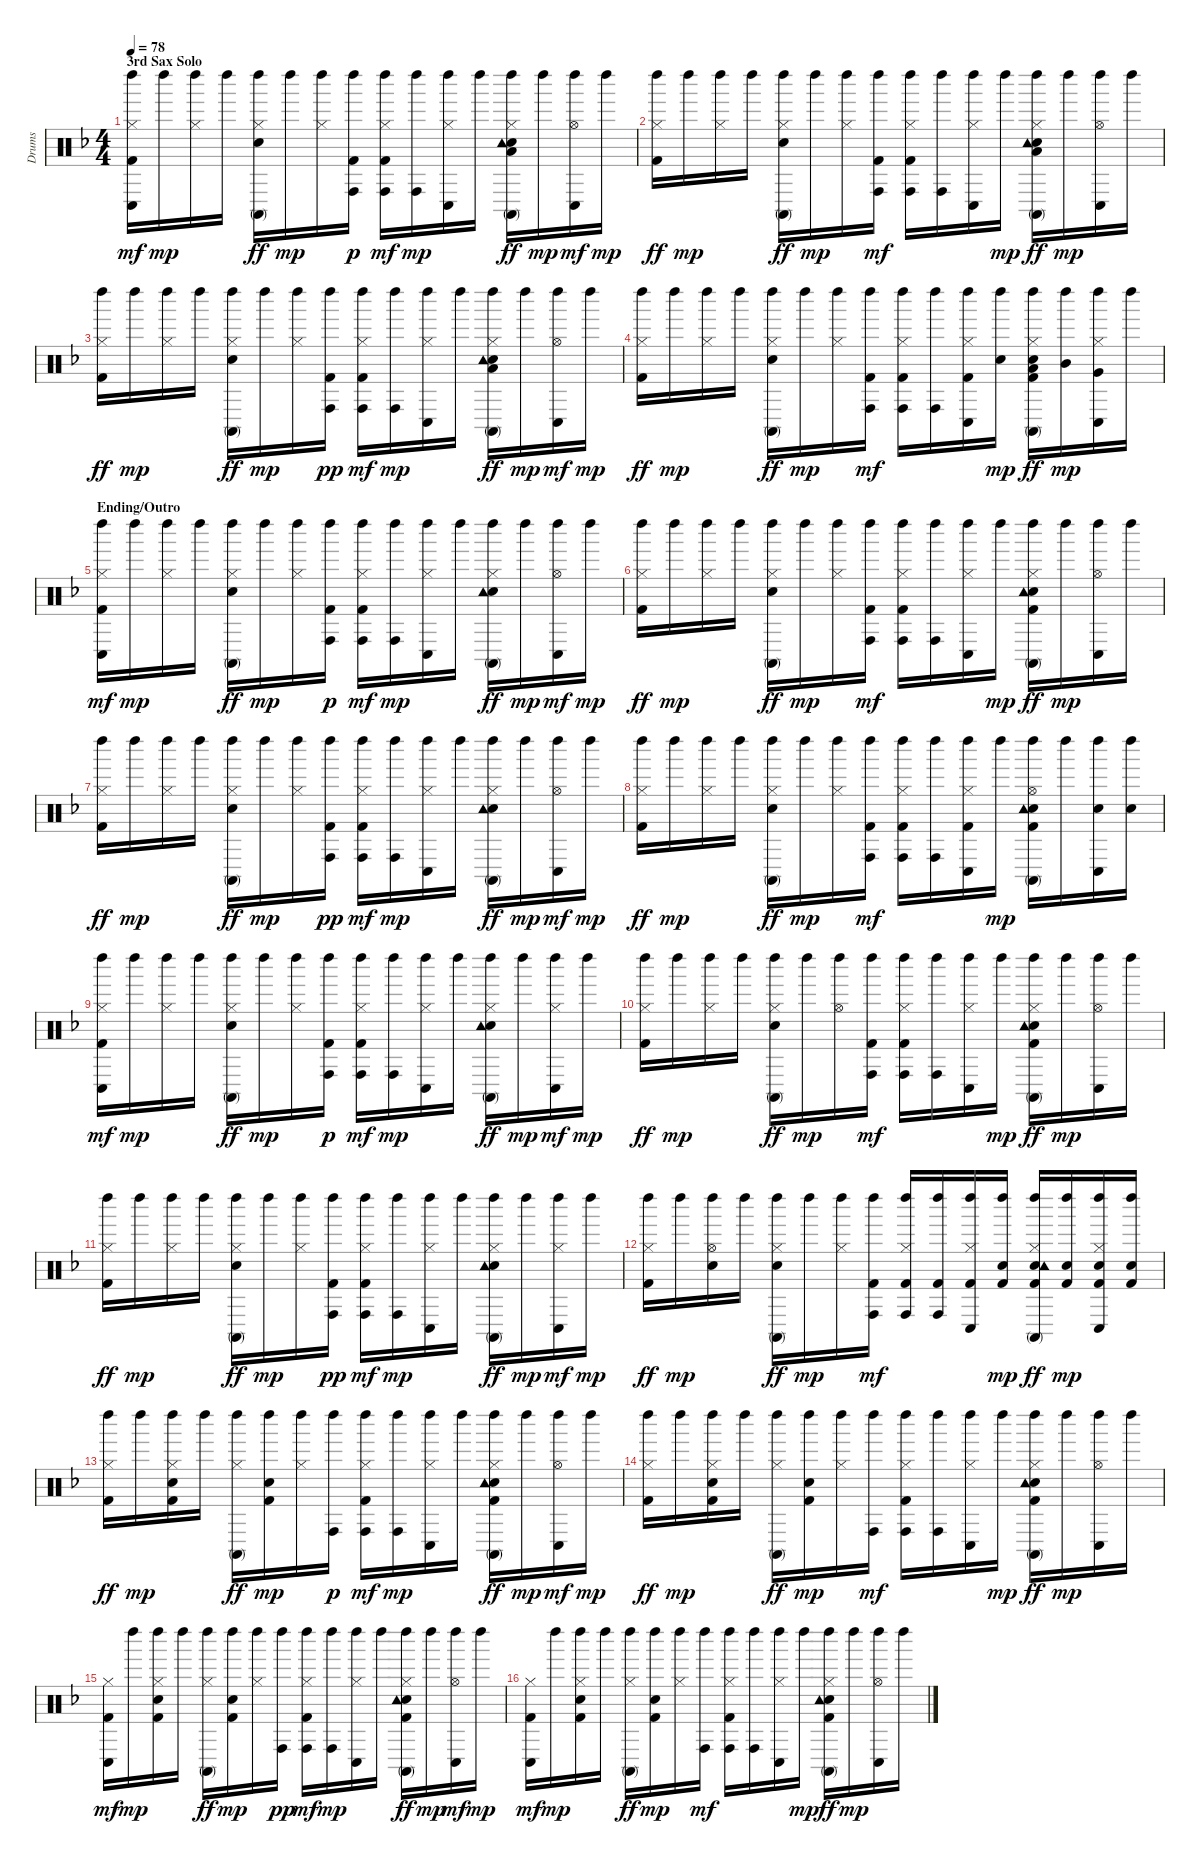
\track ("Drums" "Drums") {instrument percussion}
\staff {score}
\articulation defaults
\ts (4 4)
\section ("" "3rd Sax Solo")
\tempo 78
\clef neutral
\ks f
("Kick (hit) 2" "Hi-Hat (closed)" "Left Maraca (hit)" "Conga low (hit)").16{dy mf} "Left Maraca (hit)".16{dy mp} ("Hi-Hat (closed)" "Left Maraca (hit)").16 "Left Maraca (hit)".16 ("Snare (hit) 2" "Hi-Hat (closed)" "Left Maraca (hit)" "Conga high (mute)").16{dy ff} "Left Maraca (hit)".16{dy mp} ("Hi-Hat (closed)" "Left Maraca (hit)").16 ("Kick (hit) 2" "Left Maraca (hit)" "Conga high (hit)").16{dy p} ("Kick (hit) 2" "Hi-Hat (closed)" "Left Maraca (hit)" "Conga high (hit)").16{dy mf} ("Left Maraca (hit)" "Conga high (hit)").16{dy mp} ("Hi-Hat (closed)" "Left Maraca (hit)" "Conga low (hit)").16 "Left Maraca (hit)".16 ("Snare (hit) 2" "Hi-Hat (closed)" "Left Maraca (hit)" "Low Floor Tom (hit)" "Conga high (mute)" "Tambourine (hit)").16{dy ff} "Left Maraca (hit)".16{dy mp} ("Hi-Hat (open)" "Left Maraca (hit)" "Conga low (hit)").16{dy mf} "Left Maraca (hit)".16{dy mp} |
("Kick (hit) 2" "Hi-Hat (closed)" "Left Maraca (hit)").16{dy ff} "Left Maraca (hit)".16{dy mp} ("Hi-Hat (closed)" "Left Maraca (hit)").16 "Left Maraca (hit)".16 ("Snare (hit) 2" "Hi-Hat (closed)" "Left Maraca (hit)" "Conga high (mute)").16{dy ff} "Left Maraca (hit)".16{dy mp} ("Hi-Hat (closed)" "Left Maraca (hit)").16 ("Kick (hit) 2" "Left Maraca (hit)" "Conga high (hit)").16{dy mf} ("Kick (hit) 2" "Hi-Hat (closed)" "Left Maraca (hit)" "Conga high (hit)").16 ("Left Maraca (hit)" "Conga high (hit)").16 ("Hi-Hat (closed)" "Left Maraca (hit)" "Conga low (hit)").16 "Left Maraca (hit)".16{dy mp} ("Snare (hit) 2" "Hi-Hat (closed)" "Left Maraca (hit)" "Low Floor Tom (hit)" "Conga high (mute)" "Tambourine (hit)").16{dy ff} "Left Maraca (hit)".16{dy mp} ("Hi-Hat (open)" "Left Maraca (hit)" "Conga low (hit)").16 "Left Maraca (hit)".16 |
("Kick (hit) 2" "Hi-Hat (closed)" "Left Maraca (hit)").16{dy ff} "Left Maraca (hit)".16{dy mp} ("Hi-Hat (closed)" "Left Maraca (hit)").16 "Left Maraca (hit)".16 ("Snare (hit) 2" "Hi-Hat (closed)" "Left Maraca (hit)" "Conga high (mute)").16{dy ff} "Left Maraca (hit)".16{dy mp} ("Hi-Hat (closed)" "Left Maraca (hit)").16 ("Kick (hit) 2" "Left Maraca (hit)" "Conga high (hit)").16{dy pp} ("Kick (hit) 2" "Hi-Hat (closed)" "Left Maraca (hit)" "Conga high (hit)").16{dy mf} ("Left Maraca (hit)" "Conga high (hit)").16{dy mp} ("Hi-Hat (closed)" "Left Maraca (hit)" "Conga low (hit)").16 "Left Maraca (hit)".16 ("Snare (hit) 2" "Hi-Hat (closed)" "Left Maraca (hit)" "Conga high (mute)" "Low Floor Tom (hit)" "Tambourine (hit)").16{dy ff} "Left Maraca (hit)".16{dy mp} ("Hi-Hat (open)" "Left Maraca (hit)" "Conga low (hit)").16{dy mf} "Left Maraca (hit)".16{dy mp} |
("Kick (hit) 2" "Hi-Hat (closed)" "Left Maraca (hit)").16{dy ff} "Left Maraca (hit)".16{dy mp} ("Hi-Hat (closed)" "Left Maraca (hit)").16 "Left Maraca (hit)".16 ("Snare (hit) 2" "Hi-Hat (closed)" "Left Maraca (hit)" "Conga high (mute)").16{dy ff} "Left Maraca (hit)".16{dy mp} ("Hi-Hat (closed)" "Left Maraca (hit)").16 ("Kick (hit) 2" "Left Maraca (hit)" "Conga high (hit)").16{dy mf} ("Kick (hit) 2" "Hi-Hat (closed)" "Left Maraca (hit)" "Conga high (hit)").16 ("Left Maraca (hit)" "Conga high (hit)").16 ("Kick (hit) 2" "Hi-Hat (closed)" "Left Maraca (hit)" "Conga low (hit)").16 ("Snare (hit) 2" "Left Maraca (hit)").16{dy mp} ("Kick (hit) 2" "Snare (hit) 2" "Hi-Hat (closed)" "Left Maraca (hit)" "Conga high (mute)" "Low Floor Tom (hit)").16{dy ff} ("Left Maraca (hit)" "Mid Tom (hit)").16{dy mp} ("Hi-Hat (closed)" "Left Maraca (hit)" "Very Low Tom (hit)" "Conga low (hit)").16 "Left Maraca (hit)".16 |
\section ("" "Ending/Outro")
("Kick (hit) 2" "Hi-Hat (closed)" "Left Maraca (hit)" "Conga low (hit)").16{dy mf} "Left Maraca (hit)".16{dy mp} ("Hi-Hat (closed)" "Left Maraca (hit)").16 "Left Maraca (hit)".16 ("Snare (hit) 2" "Hi-Hat (closed)" "Left Maraca (hit)" "Conga high (mute)").16{dy ff} "Left Maraca (hit)".16{dy mp} ("Hi-Hat (closed)" "Left Maraca (hit)").16 ("Kick (hit) 2" "Left Maraca (hit)" "Conga high (hit)").16{dy p} ("Kick (hit) 2" "Hi-Hat (closed)" "Left Maraca (hit)" "Conga high (hit)").16{dy mf} ("Left Maraca (hit)" "Conga high (hit)").16{dy mp} ("Hi-Hat (closed)" "Left Maraca (hit)" "Conga low (hit)").16 "Left Maraca (hit)".16 ("Snare (hit) 2" "Hi-Hat (closed)" "Left Maraca (hit)" "Conga high (mute)" "Tambourine (hit)").16{dy ff} "Left Maraca (hit)".16{dy mp} ("Hi-Hat (open)" "Left Maraca (hit)" "Conga low (hit)").16{dy mf} "Left Maraca (hit)".16{dy mp} |
("Kick (hit) 2" "Hi-Hat (closed)" "Left Maraca (hit)").16{dy ff} "Left Maraca (hit)".16{dy mp} ("Hi-Hat (closed)" "Left Maraca (hit)").16 "Left Maraca (hit)".16 ("Snare (hit) 2" "Hi-Hat (closed)" "Left Maraca (hit)" "Conga high (mute)").16{dy ff} "Left Maraca (hit)".16{dy mp} ("Hi-Hat (closed)" "Left Maraca (hit)").16 ("Kick (hit) 2" "Left Maraca (hit)" "Conga high (hit)").16{dy mf} ("Kick (hit) 2" "Hi-Hat (closed)" "Left Maraca (hit)" "Conga high (hit)").16 ("Left Maraca (hit)" "Conga high (hit)").16 ("Hi-Hat (closed)" "Left Maraca (hit)" "Conga low (hit)").16 "Left Maraca (hit)".16{dy mp} ("Kick (hit) 2" "Snare (hit) 2" "Hi-Hat (closed)" "Left Maraca (hit)" "Conga high (mute)" "Tambourine (hit)").16{dy ff} "Left Maraca (hit)".16{dy mp} ("Hi-Hat (open)" "Left Maraca (hit)" "Conga low (hit)").16 "Left Maraca (hit)".16 |
("Kick (hit) 2" "Hi-Hat (closed)" "Left Maraca (hit)").16{dy ff} "Left Maraca (hit)".16{dy mp} ("Hi-Hat (closed)" "Left Maraca (hit)").16 "Left Maraca (hit)".16 ("Snare (hit) 2" "Hi-Hat (closed)" "Left Maraca (hit)" "Conga high (mute)").16{dy ff} "Left Maraca (hit)".16{dy mp} ("Hi-Hat (closed)" "Left Maraca (hit)").16 ("Kick (hit) 2" "Left Maraca (hit)" "Conga high (hit)").16{dy pp} ("Kick (hit) 2" "Hi-Hat (closed)" "Left Maraca (hit)" "Conga high (hit)").16{dy mf} ("Left Maraca (hit)" "Conga high (hit)").16{dy mp} ("Hi-Hat (closed)" "Left Maraca (hit)" "Conga low (hit)").16 "Left Maraca (hit)".16 ("Snare (hit) 2" "Hi-Hat (closed)" "Left Maraca (hit)" "Conga high (mute)" "Tambourine (hit)").16{dy ff} "Left Maraca (hit)".16{dy mp} ("Hi-Hat (open)" "Left Maraca (hit)" "Conga low (hit)").16{dy mf} "Left Maraca (hit)".16{dy mp} |
("Kick (hit) 2" "Hi-Hat (closed)" "Left Maraca (hit)").16{dy ff} "Left Maraca (hit)".16{dy mp} ("Hi-Hat (closed)" "Left Maraca (hit)").16 "Left Maraca (hit)".16 ("Snare (hit) 2" "Hi-Hat (closed)" "Left Maraca (hit)" "Conga high (mute)").16{dy ff} "Left Maraca (hit)".16{dy mp} ("Hi-Hat (closed)" "Left Maraca (hit)").16 ("Kick (hit) 2" "Left Maraca (hit)" "Conga high (hit)").16{dy mf} ("Kick (hit) 2" "Hi-Hat (closed)" "Left Maraca (hit)" "Conga high (hit)").16 ("Left Maraca (hit)" "Conga high (hit)").16 ("Kick (hit) 2" "Hi-Hat (closed)" "Left Maraca (hit)" "Conga low (hit)").16 "Left Maraca (hit)".16{dy mp} ("Kick (hit) 2" "Snare (hit) 2" "Hi-Hat (open)" "Left Maraca (hit)" "Conga high (mute)" "Tambourine (hit)").16 "Left Maraca (hit)".16 ("Snare (hit) 2" "Left Maraca (hit)" "Conga low (hit)").16 ("Snare (hit) 2" "Left Maraca (hit)").16 |
("Kick (hit) 2" "Hi-Hat (closed)" "Left Maraca (hit)" "Conga low (hit)").16{dy mf} "Left Maraca (hit)".16{dy mp} ("Hi-Hat (closed)" "Left Maraca (hit)").16 "Left Maraca (hit)".16 ("Snare (hit) 2" "Hi-Hat (closed)" "Left Maraca (hit)" "Conga high (mute)").16{dy ff} "Left Maraca (hit)".16{dy mp} ("Hi-Hat (closed)" "Left Maraca (hit)").16 ("Kick (hit) 2" "Left Maraca (hit)" "Conga high (hit)").16{dy p} ("Kick (hit) 2" "Hi-Hat (closed)" "Left Maraca (hit)" "Conga high (hit)").16{dy mf} ("Left Maraca (hit)" "Conga high (hit)").16{dy mp} ("Hi-Hat (closed)" "Left Maraca (hit)" "Conga low (hit)").16 "Left Maraca (hit)".16 ("Snare (hit) 2" "Hi-Hat (closed)" "Left Maraca (hit)" "Conga high (mute)" "Tambourine (hit)").16{dy ff} "Left Maraca (hit)".16{dy mp} ("Hi-Hat (closed)" "Left Maraca (hit)" "Conga low (hit)").16{dy mf} "Left Maraca (hit)".16{dy mp} |
("Kick (hit) 2" "Hi-Hat (closed)" "Left Maraca (hit)").16{dy ff} "Left Maraca (hit)".16{dy mp} ("Hi-Hat (closed)" "Left Maraca (hit)").16 "Left Maraca (hit)".16 ("Snare (hit) 2" "Hi-Hat (closed)" "Left Maraca (hit)" "Conga high (mute)").16{dy ff} "Left Maraca (hit)".16{dy mp} ("Hi-Hat (open)" "Left Maraca (hit)").16 ("Kick (hit) 2" "Left Maraca (hit)" "Conga high (hit)").16{dy mf} ("Kick (hit) 2" "Hi-Hat (closed)" "Left Maraca (hit)" "Conga high (hit)").16 ("Left Maraca (hit)" "Conga high (hit)").16 ("Hi-Hat (closed)" "Left Maraca (hit)" "Conga low (hit)").16 "Left Maraca (hit)".16{dy mp} ("Kick (hit) 2" "Snare (hit) 2" "Hi-Hat (closed)" "Left Maraca (hit)" "Conga high (mute)" "Tambourine (hit)").16{dy ff} "Left Maraca (hit)".16{dy mp} ("Hi-Hat (open)" "Left Maraca (hit)" "Conga low (hit)").16 "Left Maraca (hit)".16 |
("Kick (hit) 2" "Hi-Hat (closed)" "Left Maraca (hit)").16{dy ff} "Left Maraca (hit)".16{dy mp} ("Hi-Hat (closed)" "Left Maraca (hit)").16 "Left Maraca (hit)".16 ("Snare (hit) 2" "Hi-Hat (closed)" "Left Maraca (hit)" "Conga high (mute)").16{dy ff} "Left Maraca (hit)".16{dy mp} ("Hi-Hat (closed)" "Left Maraca (hit)").16 ("Kick (hit) 2" "Left Maraca (hit)" "Conga high (hit)").16{dy pp} ("Kick (hit) 2" "Hi-Hat (closed)" "Left Maraca (hit)" "Conga high (hit)").16{dy mf} ("Left Maraca (hit)" "Conga high (hit)").16{dy mp} ("Hi-Hat (closed)" "Left Maraca (hit)" "Conga low (hit)").16 "Left Maraca (hit)".16 ("Snare (hit) 2" "Hi-Hat (closed)" "Left Maraca (hit)" "Conga high (mute)" "Tambourine (hit)").16{dy ff} "Left Maraca (hit)".16{dy mp} ("Hi-Hat (closed)" "Left Maraca (hit)" "Conga low (hit)").16{dy mf} "Left Maraca (hit)".16{dy mp} |
("Kick (hit) 2" "Hi-Hat (closed)" "Left Maraca (hit)").16{dy ff} "Left Maraca (hit)".16{dy mp} ("Snare (hit) 2" "Hi-Hat (open)" "Left Maraca (hit)").16 "Left Maraca (hit)".16 ("Snare (hit) 2" "Hi-Hat (closed)" "Left Maraca (hit)" "Conga high (mute)").16{dy ff} "Left Maraca (hit)".16{dy mp} ("Hi-Hat (closed)" "Left Maraca (hit)").16 ("Kick (hit) 2" "Left Maraca (hit)" "Conga high (hit)").16{dy mf} ("Kick (hit) 2" "Hi-Hat (closed)" "Left Maraca (hit)" "Conga high (hit)").16 ("Kick (hit) 2" "Left Maraca (hit)" "Conga high (hit)").16 ("Kick (hit) 2" "Hi-Hat (closed)" "Left Maraca (hit)" "Conga low (hit)").16 ("Kick (hit) 2" "Snare (hit) 2" "Left Maraca (hit)").16{dy mp} ("Kick (hit) 2" "Snare (hit) 2" "Hi-Hat (closed)" "Left Maraca (hit)" "Conga high (mute)" "Tambourine (hit)").16{dy ff} ("Kick (hit) 2" "Snare (hit) 2" "Left Maraca (hit)").16{dy mp} ("Kick (hit) 2" "Snare (hit) 2" "Hi-Hat (closed)" "Left Maraca (hit)" "Conga low (hit)").16 ("Kick (hit) 2" "Snare (hit) 2" "Left Maraca (hit)").16 |
("Kick (hit) 2" "Hi-Hat (closed)" "Left Maraca (hit)").16{dy ff} "Left Maraca (hit)".16{dy mp} ("Kick (hit) 2" "Snare (hit) 2" "Hi-Hat (closed)" "Left Maraca (hit)").16 "Left Maraca (hit)".16 ("Hi-Hat (closed)" "Left Maraca (hit)" "Conga high (mute)").16{dy ff} ("Kick (hit) 2" "Snare (hit) 2" "Left Maraca (hit)").16{dy mp} ("Hi-Hat (closed)" "Left Maraca (hit)").16 ("Left Maraca (hit)" "Conga high (hit)").16{dy p} ("Kick (hit) 2" "Hi-Hat (closed)" "Left Maraca (hit)" "Conga high (hit)").16{dy mf} ("Left Maraca (hit)" "Conga high (hit)").16{dy mp} ("Hi-Hat (closed)" "Left Maraca (hit)" "Conga low (hit)").16 "Left Maraca (hit)".16 ("Kick (hit) 2" "Snare (hit) 2" "Hi-Hat (closed)" "Left Maraca (hit)" "Conga high (mute)" "Tambourine (hit)").16{dy ff} "Left Maraca (hit)".16{dy mp} ("Hi-Hat (open)" "Left Maraca (hit)" "Conga low (hit)").16{dy mf} "Left Maraca (hit)".16{dy mp} |
("Kick (hit) 2" "Hi-Hat (closed)" "Left Maraca (hit)").16{dy ff} "Left Maraca (hit)".16{dy mp} ("Kick (hit) 2" "Snare (hit) 2" "Hi-Hat (closed)" "Left Maraca (hit)").16 "Left Maraca (hit)".16 ("Hi-Hat (closed)" "Left Maraca (hit)" "Conga high (mute)").16{dy ff} ("Kick (hit) 2" "Snare (hit) 2" "Left Maraca (hit)").16{dy mp} ("Hi-Hat (closed)" "Left Maraca (hit)").16 ("Left Maraca (hit)" "Conga high (hit)").16{dy mf} ("Kick (hit) 2" "Hi-Hat (closed)" "Left Maraca (hit)" "Conga high (hit)").16 ("Left Maraca (hit)" "Conga high (hit)").16 ("Hi-Hat (closed)" "Left Maraca (hit)" "Conga low (hit)").16 "Left Maraca (hit)".16{dy mp} ("Kick (hit) 2" "Snare (hit) 2" "Hi-Hat (closed)" "Left Maraca (hit)" "Conga high (mute)" "Tambourine (hit)").16{dy ff} "Left Maraca (hit)".16{dy mp} ("Hi-Hat (open)" "Left Maraca (hit)" "Conga low (hit)").16 "Left Maraca (hit)".16 |
("Kick (hit) 2" "Hi-Hat (closed)" "Conga low (hit)").16{dy mf} "Left Maraca (hit)".16{dy mp} ("Kick (hit) 2" "Snare (hit) 2" "Hi-Hat (closed)" "Left Maraca (hit)").16 "Left Maraca (hit)".16 ("Hi-Hat (closed)" "Left Maraca (hit)" "Conga high (mute)").16{dy ff} ("Kick (hit) 2" "Snare (hit) 2" "Left Maraca (hit)").16{dy mp} ("Hi-Hat (closed)" "Left Maraca (hit)").16 ("Left Maraca (hit)" "Conga high (hit)").16{dy pp} ("Kick (hit) 2" "Hi-Hat (closed)" "Left Maraca (hit)" "Conga high (hit)").16{dy mf} ("Left Maraca (hit)" "Conga high (hit)").16{dy mp} ("Hi-Hat (closed)" "Left Maraca (hit)" "Conga low (hit)").16 "Left Maraca (hit)".16 ("Kick (hit) 2" "Snare (hit) 2" "Hi-Hat (closed)" "Left Maraca (hit)" "Conga high (mute)" "Tambourine (hit)").16{dy ff} "Left Maraca (hit)".16{dy mp} ("Hi-Hat (open)" "Left Maraca (hit)" "Conga low (hit)").16{dy mf} "Left Maraca (hit)".16{dy mp} |
("Kick (hit) 2" "Hi-Hat (closed)" "Conga low (hit)").16{dy mf} "Left Maraca (hit)".16{dy mp} ("Kick (hit) 2" "Snare (hit) 2" "Hi-Hat (closed)" "Left Maraca (hit)").16 "Left Maraca (hit)".16 ("Hi-Hat (closed)" "Left Maraca (hit)" "Conga high (mute)").16{dy ff} ("Kick (hit) 2" "Snare (hit) 2" "Left Maraca (hit)").16{dy mp} ("Hi-Hat (closed)" "Left Maraca (hit)").16 ("Left Maraca (hit)" "Conga high (hit)").16{dy mf} ("Kick (hit) 2" "Hi-Hat (closed)" "Left Maraca (hit)" "Conga high (hit)").16 ("Left Maraca (hit)" "Conga high (hit)").16 ("Hi-Hat (closed)" "Left Maraca (hit)" "Conga low (hit)").16 "Left Maraca (hit)".16{dy mp} ("Kick (hit) 2" "Snare (hit) 2" "Hi-Hat (closed)" "Left Maraca (hit)" "Conga high (mute)" "Tambourine (hit)").16{dy ff} "Left Maraca (hit)".16{dy mp} ("Hi-Hat (open)" "Left Maraca (hit)" "Conga low (hit)").16 "Left Maraca (hit)".16
